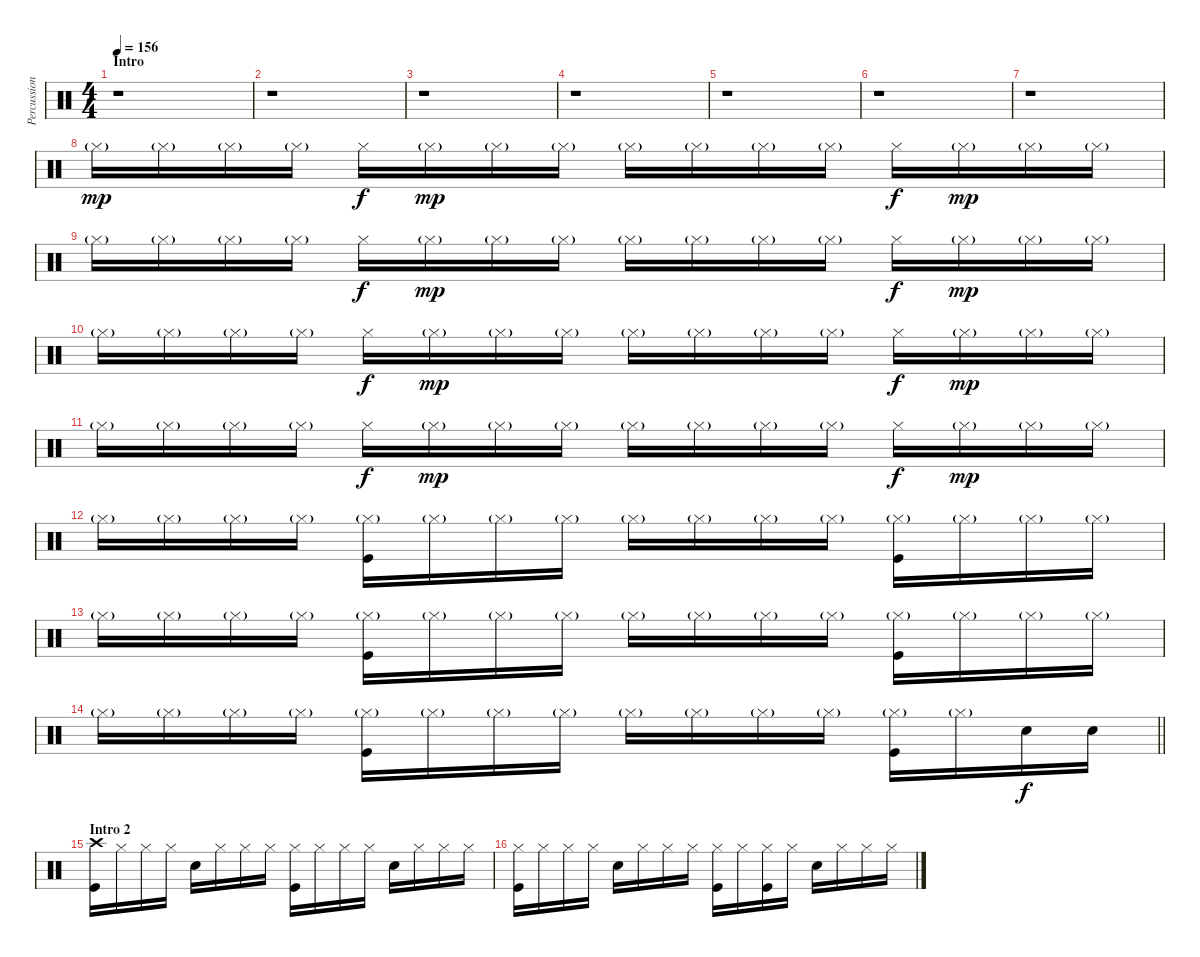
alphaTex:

\track ("Percussion" "Percussion") {instrument percussion}
\staff {score}
\articulation defaults
\ts (4 4)
\section ("" "Intro")
\tempo 156
\clef neutral
\ks c
r.1{dy mp} |
r.1 |
r.1 |
r.1 |
r.1 |
r.1 |
r.1 |
"Hi-Hat (closed)"{g}.16 "Hi-Hat (closed)"{g}.16 "Hi-Hat (closed)"{g}.16 "Hi-Hat (closed)"{g}.16 "Hi-Hat (closed)".16{dy f} "Hi-Hat (closed)"{g}.16{dy mp} "Hi-Hat (closed)"{g}.16 "Hi-Hat (closed)"{g}.16 "Hi-Hat (closed)"{g}.16 "Hi-Hat (closed)"{g}.16 "Hi-Hat (closed)"{g}.16 "Hi-Hat (closed)"{g}.16 "Hi-Hat (closed)".16{dy f} "Hi-Hat (closed)"{g}.16{dy mp} "Hi-Hat (closed)"{g}.16 "Hi-Hat (closed)"{g}.16 |
"Hi-Hat (closed)"{g}.16 "Hi-Hat (closed)"{g}.16 "Hi-Hat (closed)"{g}.16 "Hi-Hat (closed)"{g}.16 "Hi-Hat (closed)".16{dy f} "Hi-Hat (closed)"{g}.16{dy mp} "Hi-Hat (closed)"{g}.16 "Hi-Hat (closed)"{g}.16 "Hi-Hat (closed)"{g}.16 "Hi-Hat (closed)"{g}.16 "Hi-Hat (closed)"{g}.16 "Hi-Hat (closed)"{g}.16 "Hi-Hat (closed)".16{dy f} "Hi-Hat (closed)"{g}.16{dy mp} "Hi-Hat (closed)"{g}.16 "Hi-Hat (closed)"{g}.16 |
"Hi-Hat (closed)"{g}.16 "Hi-Hat (closed)"{g}.16 "Hi-Hat (closed)"{g}.16 "Hi-Hat (closed)"{g}.16 "Hi-Hat (closed)".16{dy f} "Hi-Hat (closed)"{g}.16{dy mp} "Hi-Hat (closed)"{g}.16 "Hi-Hat (closed)"{g}.16 "Hi-Hat (closed)"{g}.16 "Hi-Hat (closed)"{g}.16 "Hi-Hat (closed)"{g}.16 "Hi-Hat (closed)"{g}.16 "Hi-Hat (closed)".16{dy f} "Hi-Hat (closed)"{g}.16{dy mp} "Hi-Hat (closed)"{g}.16 "Hi-Hat (closed)"{g}.16 |
"Hi-Hat (closed)"{g}.16 "Hi-Hat (closed)"{g}.16 "Hi-Hat (closed)"{g}.16 "Hi-Hat (closed)"{g}.16 "Hi-Hat (closed)".16{dy f} "Hi-Hat (closed)"{g}.16{dy mp} "Hi-Hat (closed)"{g}.16 "Hi-Hat (closed)"{g}.16 "Hi-Hat (closed)"{g}.16 "Hi-Hat (closed)"{g}.16 "Hi-Hat (closed)"{g}.16 "Hi-Hat (closed)"{g}.16 "Hi-Hat (closed)".16{dy f} "Hi-Hat (closed)"{g}.16{dy mp} "Hi-Hat (closed)"{g}.16 "Hi-Hat (closed)"{g}.16 |
"Hi-Hat (closed)"{g}.16 "Hi-Hat (closed)"{g}.16 "Hi-Hat (closed)"{g}.16 "Hi-Hat (closed)"{g}.16 ("Hi-Hat (closed)"{g} "Kick (hit)").16 "Hi-Hat (closed)"{g}.16 "Hi-Hat (closed)"{g}.16 "Hi-Hat (closed)"{g}.16 "Hi-Hat (closed)"{g}.16 "Hi-Hat (closed)"{g}.16 "Hi-Hat (closed)"{g}.16 "Hi-Hat (closed)"{g}.16 ("Hi-Hat (closed)"{g} "Kick (hit)").16 "Hi-Hat (closed)"{g}.16 "Hi-Hat (closed)"{g}.16 "Hi-Hat (closed)"{g}.16 |
"Hi-Hat (closed)"{g}.16 "Hi-Hat (closed)"{g}.16 "Hi-Hat (closed)"{g}.16 "Hi-Hat (closed)"{g}.16 ("Hi-Hat (closed)"{g} "Kick (hit)").16 "Hi-Hat (closed)"{g}.16 "Hi-Hat (closed)"{g}.16 "Hi-Hat (closed)"{g}.16 "Hi-Hat (closed)"{g}.16 "Hi-Hat (closed)"{g}.16 "Hi-Hat (closed)"{g}.16 "Hi-Hat (closed)"{g}.16 ("Hi-Hat (closed)"{g} "Kick (hit)").16 "Hi-Hat (closed)"{g}.16 "Hi-Hat (closed)"{g}.16 "Hi-Hat (closed)"{g}.16 |
\barLineRight lightlight "Hi-Hat (closed)"{g}.16 "Hi-Hat (closed)"{g}.16 "Hi-Hat (closed)"{g}.16 "Hi-Hat (closed)"{g}.16
("Hi-Hat (closed)"{g} "Kick (hit)").16 "Hi-Hat (closed)"{g}.16 "Hi-Hat (closed)"{g}.16 "Hi-Hat (closed)"{g}.16 "Hi-Hat (closed)"{g}.16 "Hi-Hat (closed)"{g}.16 "Hi-Hat (closed)"{g}.16 "Hi-Hat (closed)"{g}.16 ("Hi-Hat (closed)"{g} "Kick (hit)").16 "Hi-Hat (closed)"{g}.16 "Snare (hit) 2".16{dy f} "Snare (hit) 2".16 |
\section ("" "Intro 2")
("Crash high (hit)" "Kick (hit)").16 "Hi-Hat (closed)".16 "Hi-Hat (closed)".16 "Hi-Hat (closed)".16 "Snare (hit) 2".16 "Hi-Hat (closed)".16 "Hi-Hat (closed)".16 "Hi-Hat (closed)".16 ("Hi-Hat (closed)" "Kick (hit)").16 "Hi-Hat (closed)".16 "Hi-Hat (closed)".16 "Hi-Hat (closed)".16 "Snare (hit) 2".16 "Hi-Hat (closed)".16 "Hi-Hat (closed)".16 "Hi-Hat (closed)".16 |
("Hi-Hat (closed)" "Kick (hit)").16 "Hi-Hat (closed)".16 "Hi-Hat (closed)".16 "Hi-Hat (closed)".16 "Snare (hit) 2".16 "Hi-Hat (closed)".16 "Hi-Hat (closed)".16 "Hi-Hat (closed)".16 ("Hi-Hat (closed)" "Kick (hit)").16 "Hi-Hat (closed)".16 ("Hi-Hat (closed)" "Kick (hit)").16 "Hi-Hat (closed)".16 "Snare (hit) 2".16 "Hi-Hat (closed)".16 "Hi-Hat (closed)".16 "Hi-Hat (closed)".16
